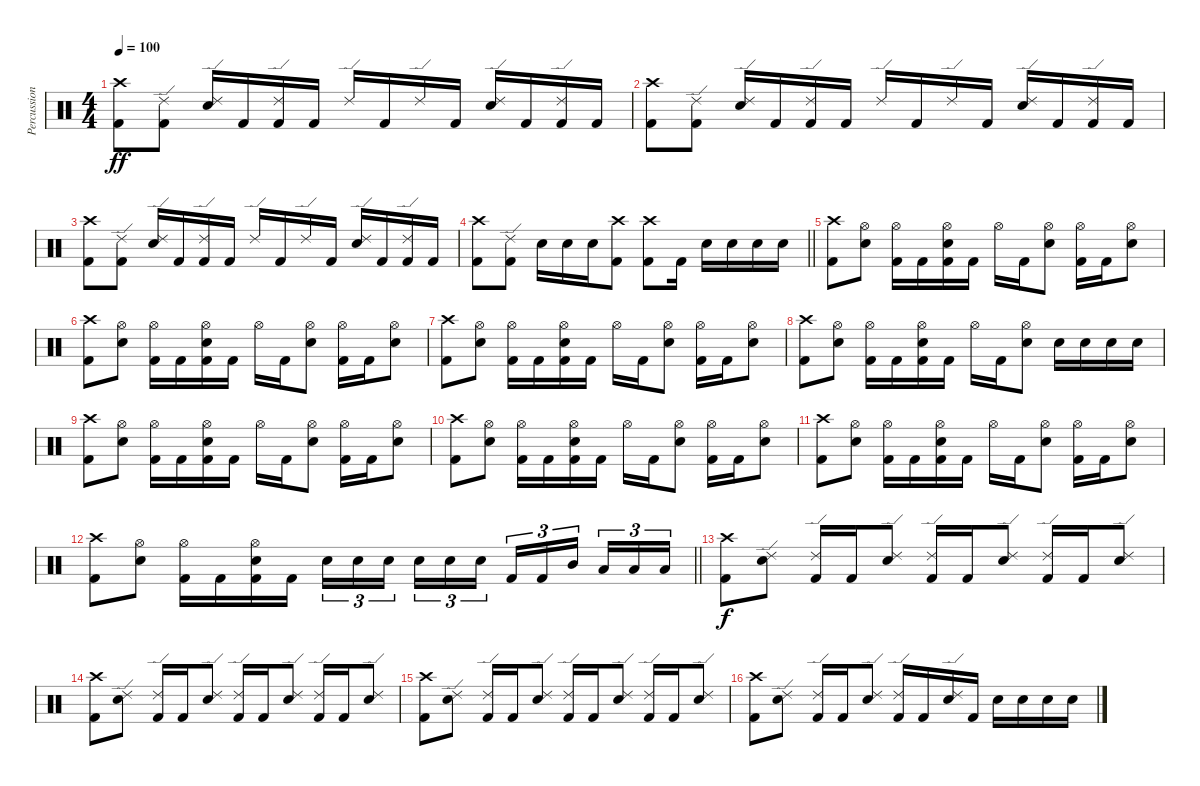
\track ("Percussion" "Percussion") {instrument percussion}
\staff {score}
\articulation defaults
\ts (4 4)
\tempo 100
\clef neutral
\ks c
("Crash high (hit)" "Kick (hit) 2").8{dy ff} ("Ride (edge) 2" "Kick (hit) 2").8 ("Ride (edge) 2" "Electric Snare (hit)").16 "Kick (hit) 2".16 ("Ride (edge) 2" "Kick (hit) 2").16 "Kick (hit) 2".16 "Ride (edge) 2".16 "Kick (hit) 2".16 "Ride (edge) 2".16 "Kick (hit) 2".16 ("Ride (edge) 2" "Electric Snare (hit)").16 "Kick (hit) 2".16 ("Ride (edge) 2" "Kick (hit) 2").16 "Kick (hit) 2".16 |
("Crash high (hit)" "Kick (hit) 2").8 ("Ride (edge) 2" "Kick (hit) 2").8 ("Ride (edge) 2" "Electric Snare (hit)").16 "Kick (hit) 2".16 ("Ride (edge) 2" "Kick (hit) 2").16 "Kick (hit) 2".16 "Ride (edge) 2".16 "Kick (hit) 2".16 "Ride (edge) 2".16 "Kick (hit) 2".16 ("Ride (edge) 2" "Electric Snare (hit)").16 "Kick (hit) 2".16 ("Ride (edge) 2" "Kick (hit) 2").16 "Kick (hit) 2".16 |
("Crash high (hit)" "Kick (hit) 2").8 ("Ride (edge) 2" "Kick (hit) 2").8 ("Ride (edge) 2" "Electric Snare (hit)").16 "Kick (hit) 2".16 ("Ride (edge) 2" "Kick (hit) 2").16 "Kick (hit) 2".16 "Ride (edge) 2".16 "Kick (hit) 2".16 "Ride (edge) 2".16 "Kick (hit) 2".16 ("Ride (edge) 2" "Electric Snare (hit)").16 "Kick (hit) 2".16 ("Ride (edge) 2" "Kick (hit) 2").16 "Kick (hit) 2".16 |
\barLineRight lightlight
("Crash high (hit)" "Kick (hit) 2").8 ("Ride (edge) 2" "Kick (hit) 2").8 "Electric Snare (hit)".16 "Electric Snare (hit)".16 "Electric Snare (hit)".16 ("Crash high (hit)" "Kick (hit) 2").8 ("Crash high (hit)" "Kick (hit) 2").8 "Kick (hit) 2".16 "Electric Snare (hit)".16 "Electric Snare (hit)".16 "Electric Snare (hit)".16 "Electric Snare (hit)".16 |
("Crash high (hit)" "Kick (hit) 2").8 ("Hi-Hat (open)" "Electric Snare (hit)").8 ("Hi-Hat (open)" "Kick (hit) 2").16 "Kick (hit) 2".16 ("Hi-Hat (open)" "Electric Snare (hit)" "Kick (hit) 2").16 "Kick (hit) 2".16 "Hi-Hat (open)".16 "Kick (hit) 2".16 ("Hi-Hat (open)" "Electric Snare (hit)").8 ("Hi-Hat (open)" "Kick (hit) 2").16 "Kick (hit) 2".16 ("Hi-Hat (open)" "Electric Snare (hit)").8 |
("Crash high (hit)" "Kick (hit) 2").8 ("Hi-Hat (open)" "Electric Snare (hit)").8 ("Hi-Hat (open)" "Kick (hit) 2").16 "Kick (hit) 2".16 ("Hi-Hat (open)" "Electric Snare (hit)" "Kick (hit) 2").16 "Kick (hit) 2".16 "Hi-Hat (open)".16 "Kick (hit) 2".16 ("Hi-Hat (open)" "Electric Snare (hit)").8 ("Hi-Hat (open)" "Kick (hit) 2").16 "Kick (hit) 2".16 ("Hi-Hat (open)" "Electric Snare (hit)").8 |
("Crash high (hit)" "Kick (hit) 2").8 ("Hi-Hat (open)" "Electric Snare (hit)").8 ("Hi-Hat (open)" "Kick (hit) 2").16 "Kick (hit) 2".16 ("Hi-Hat (open)" "Electric Snare (hit)" "Kick (hit) 2").16 "Kick (hit) 2".16 "Hi-Hat (open)".16 "Kick (hit) 2".16 ("Hi-Hat (open)" "Electric Snare (hit)").8 ("Hi-Hat (open)" "Kick (hit) 2").16 "Kick (hit) 2".16 ("Hi-Hat (open)" "Electric Snare (hit)").8 |
("Crash high (hit)" "Kick (hit) 2").8 ("Hi-Hat (open)" "Electric Snare (hit)").8 ("Hi-Hat (open)" "Kick (hit) 2").16 "Kick (hit) 2".16 ("Hi-Hat (open)" "Electric Snare (hit)" "Kick (hit) 2").16 "Kick (hit) 2".16 "Hi-Hat (open)".16 "Kick (hit) 2".16 ("Hi-Hat (open)" "Electric Snare (hit)").8 "Electric Snare (hit)".16 "Electric Snare (hit)".16 "Electric Snare (hit)".16 "Electric Snare (hit)".16 |
("Crash high (hit)" "Kick (hit) 2").8 ("Hi-Hat (open)" "Electric Snare (hit)").8 ("Hi-Hat (open)" "Kick (hit) 2").16 "Kick (hit) 2".16 ("Hi-Hat (open)" "Electric Snare (hit)" "Kick (hit) 2").16 "Kick (hit) 2".16 "Hi-Hat (open)".16 "Kick (hit) 2".16 ("Hi-Hat (open)" "Electric Snare (hit)").8 ("Hi-Hat (open)" "Kick (hit) 2").16 "Kick (hit) 2".16 ("Hi-Hat (open)" "Electric Snare (hit)").8 |
("Crash high (hit)" "Kick (hit) 2").8 ("Hi-Hat (open)" "Electric Snare (hit)").8 ("Hi-Hat (open)" "Kick (hit) 2").16 "Kick (hit) 2".16 ("Hi-Hat (open)" "Electric Snare (hit)" "Kick (hit) 2").16 "Kick (hit) 2".16 "Hi-Hat (open)".16 "Kick (hit) 2".16 ("Hi-Hat (open)" "Electric Snare (hit)").8 ("Hi-Hat (open)" "Kick (hit) 2").16 "Kick (hit) 2".16 ("Hi-Hat (open)" "Electric Snare (hit)").8 |
("Crash high (hit)" "Kick (hit) 2").8 ("Hi-Hat (open)" "Electric Snare (hit)").8 ("Hi-Hat (open)" "Kick (hit) 2").16 "Kick (hit) 2".16 ("Hi-Hat (open)" "Electric Snare (hit)" "Kick (hit) 2").16 "Kick (hit) 2".16 "Hi-Hat (open)".16 "Kick (hit) 2".16 ("Hi-Hat (open)" "Electric Snare (hit)").8 ("Hi-Hat (open)" "Kick (hit) 2").16 "Kick (hit) 2".16 ("Hi-Hat (open)" "Electric Snare (hit)").8 |
\barLineRight lightlight
("Crash high (hit)" "Kick (hit) 2").8 ("Hi-Hat (open)" "Electric Snare (hit)").8 ("Hi-Hat (open)" "Kick (hit) 2").16 "Kick (hit) 2".16 ("Hi-Hat (open)" "Electric Snare (hit)" "Kick (hit) 2").16 "Kick (hit) 2".16 "Electric Snare (hit)".16{tu (3 2)} "Electric Snare (hit)".16{tu (3 2)} "Electric Snare (hit)".16{tu (3 2) beam splitsecondary} "Electric Snare (hit)".16{tu (3 2)} "Electric Snare (hit)".16{tu (3 2)} "Electric Snare (hit)".16{tu (3 2)} "Kick (hit) 2".16{tu (3 2)} "Kick (hit) 2".16{tu (3 2)} "Mid Tom (hit)".16{tu (3 2) beam splitsecondary} "Low Tom (hit)".16{tu (3 2)} "Low Tom (hit)".16{tu (3 2)} "Low Tom (hit)".16{tu (3 2)} |
("Crash high (hit)" "Kick (hit) 2").8{dy f} ("Ride (edge) 2" "Electric Snare (hit)").8 ("Ride (edge) 2" "Kick (hit) 2").16 "Kick (hit) 2".16 ("Ride (edge) 2" "Electric Snare (hit)").8 ("Ride (edge) 2" "Kick (hit) 2").16 "Kick (hit) 2".16 ("Ride (edge) 2" "Electric Snare (hit)").8 ("Ride (edge) 2" "Kick (hit) 2").16 "Kick (hit) 2".16 ("Ride (edge) 2" "Electric Snare (hit)").8 |
("Crash high (hit)" "Kick (hit) 2").8 ("Ride (edge) 2" "Electric Snare (hit)").8 ("Ride (edge) 2" "Kick (hit) 2").16 "Kick (hit) 2".16 ("Ride (edge) 2" "Electric Snare (hit)").8 ("Ride (edge) 2" "Kick (hit) 2").16 "Kick (hit) 2".16 ("Ride (edge) 2" "Electric Snare (hit)").8 ("Ride (edge) 2" "Kick (hit) 2").16 "Kick (hit) 2".16 ("Ride (edge) 2" "Electric Snare (hit)").8 |
("Crash high (hit)" "Kick (hit) 2").8 ("Ride (edge) 2" "Electric Snare (hit)").8 ("Ride (edge) 2" "Kick (hit) 2").16 "Kick (hit) 2".16 ("Ride (edge) 2" "Electric Snare (hit)").8 ("Ride (edge) 2" "Kick (hit) 2").16 "Kick (hit) 2".16 ("Ride (edge) 2" "Electric Snare (hit)").8 ("Ride (edge) 2" "Kick (hit) 2").16 "Kick (hit) 2".16 ("Ride (edge) 2" "Electric Snare (hit)").8 |
("Crash high (hit)" "Kick (hit) 2").8 ("Ride (edge) 2" "Electric Snare (hit)").8 ("Ride (edge) 2" "Kick (hit) 2").16 "Kick (hit) 2".16 ("Ride (edge) 2" "Electric Snare (hit)").8 ("Ride (edge) 2" "Kick (hit) 2").16 "Kick (hit) 2".16 ("Ride (edge) 2" "Electric Snare (hit)").16 "Kick (hit) 2".16 "Electric Snare (hit)".16 "Electric Snare (hit)".16 "Electric Snare (hit)".16 "Electric Snare (hit)".16
